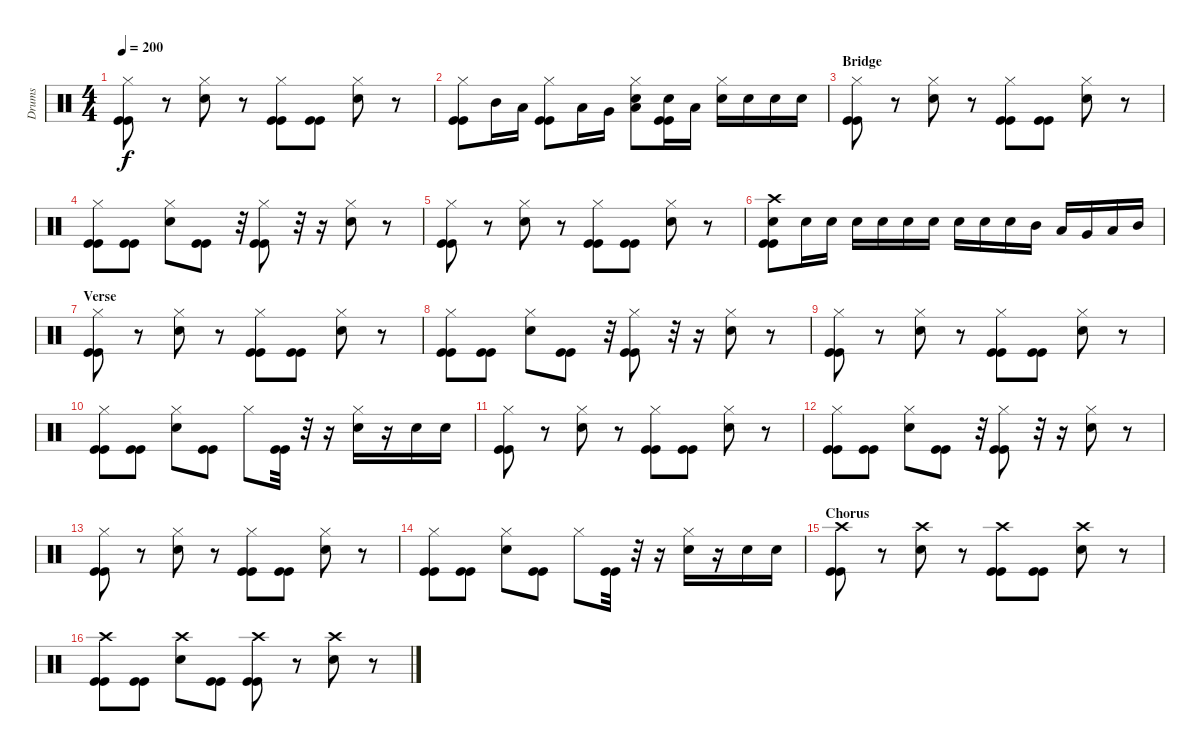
\track ("Drums" "Drums") {instrument percussion}
\staff {score}
\articulation defaults
\ts (4 4)
\tempo 200
\clef neutral
\ks c
("Hi-Hat (closed)" "Kick (hit)" "Kick (hit)").8{dy f} r.8 ("Hi-Hat (closed)" "Electric Snare (hit)").8 r.8 ("Hi-Hat (closed)" "Kick (hit)" "Kick (hit)").8 ("Kick (hit)" "Kick (hit)").8 ("Hi-Hat (closed)" "Electric Snare (hit)").8 r.8 |
("Hi-Hat (closed)" "Kick (hit)" "Kick (hit)").8 "Mid Tom (hit)".16 "Low Tom (hit)".16 ("Hi-Hat (closed)" "Kick (hit)" "Kick (hit)").8 "Low Tom (hit)".16 "Very Low Tom (hit)".16 ("Hi-Hat (closed)" "Low Tom (hit)" "Electric Snare (hit)").8 ("Electric Snare (hit)" "Kick (hit)" "Kick (hit)").16 "Low Tom (hit)".16 ("Hi-Hat (closed)" "Electric Snare (hit)").16 "Electric Snare (hit)".16 "Electric Snare (hit)".16 "Electric Snare (hit)".16 |
\section ("" "Bridge")
("Hi-Hat (closed)" "Kick (hit)" "Kick (hit)").8 r.8 ("Hi-Hat (closed)" "Electric Snare (hit)").8 r.8 ("Hi-Hat (closed)" "Kick (hit)" "Kick (hit)").8 ("Kick (hit)" "Kick (hit)").8 ("Hi-Hat (closed)" "Electric Snare (hit)").8 r.8 |
("Hi-Hat (closed)" "Kick (hit)" "Kick (hit)").8 ("Kick (hit)" "Kick (hit)").8 ("Hi-Hat (closed)" "Electric Snare (hit)").8 ("Kick (hit)" "Kick (hit)").8 r.32 ("Hi-Hat (closed)" "Kick (hit)" "Kick (hit)").8 r.32 r.16 ("Hi-Hat (closed)" "Electric Snare (hit)").8 r.8 |
("Hi-Hat (closed)" "Kick (hit)" "Kick (hit)").8 r.8 ("Hi-Hat (closed)" "Electric Snare (hit)").8 r.8 ("Hi-Hat (closed)" "Kick (hit)" "Kick (hit)").8 ("Kick (hit)" "Kick (hit)").8 ("Hi-Hat (closed)" "Electric Snare (hit)").8 r.8 |
("Crash high (hit)" "Electric Snare (hit)" "Kick (hit)" "Kick (hit)").8 "Electric Snare (hit)".16 "Electric Snare (hit)".16 "Electric Snare (hit)".16 "Electric Snare (hit)".16 "Electric Snare (hit)".16 "Electric Snare (hit)".16 "Electric Snare (hit)".16 "Electric Snare (hit)".16 "Electric Snare (hit)".16 "Mid Tom (hit)".16 "Low Tom (hit)".16 "Very Low Tom (hit)".16 "Low Tom (hit)".16 "Mid Tom (hit)".16 |
\section ("" "Verse")
("Hi-Hat (closed)" "Kick (hit)" "Kick (hit)").8 r.8 ("Hi-Hat (closed)" "Electric Snare (hit)").8 r.8 ("Hi-Hat (closed)" "Kick (hit)" "Kick (hit)").8 ("Kick (hit)" "Kick (hit)").8 ("Hi-Hat (closed)" "Electric Snare (hit)").8 r.8 |
("Hi-Hat (closed)" "Kick (hit)" "Kick (hit)").8 ("Kick (hit)" "Kick (hit)").8 ("Hi-Hat (closed)" "Electric Snare (hit)").8 ("Kick (hit)" "Kick (hit)").8 r.32 ("Hi-Hat (closed)" "Kick (hit)" "Kick (hit)").8 r.32 r.16 ("Hi-Hat (closed)" "Electric Snare (hit)").8 r.8 |
("Hi-Hat (closed)" "Kick (hit)" "Kick (hit)").8 r.8 ("Hi-Hat (closed)" "Electric Snare (hit)").8 r.8 ("Hi-Hat (closed)" "Kick (hit)" "Kick (hit)").8 ("Kick (hit)" "Kick (hit)").8 ("Hi-Hat (closed)" "Electric Snare (hit)").8 r.8 |
("Hi-Hat (closed)" "Kick (hit)" "Kick (hit)").8 ("Kick (hit)" "Kick (hit)").8 ("Hi-Hat (closed)" "Electric Snare (hit)").8 ("Kick (hit)" "Kick (hit)").8 "Hi-Hat (closed)".8 ("Kick (hit)" "Kick (hit)").32 r.32 r.16 ("Hi-Hat (closed)" "Electric Snare (hit)").16 r.16 "Electric Snare (hit)".16 "Electric Snare (hit)".16 |
("Hi-Hat (closed)" "Kick (hit)" "Kick (hit)").8 r.8 ("Hi-Hat (closed)" "Electric Snare (hit)").8 r.8 ("Hi-Hat (closed)" "Kick (hit)" "Kick (hit)").8 ("Kick (hit)" "Kick (hit)").8 ("Hi-Hat (closed)" "Electric Snare (hit)").8 r.8 |
("Hi-Hat (closed)" "Kick (hit)" "Kick (hit)").8 ("Kick (hit)" "Kick (hit)").8 ("Hi-Hat (closed)" "Electric Snare (hit)").8 ("Kick (hit)" "Kick (hit)").8 r.32 ("Hi-Hat (closed)" "Kick (hit)" "Kick (hit)").8 r.32 r.16 ("Hi-Hat (closed)" "Electric Snare (hit)").8 r.8 |
("Hi-Hat (closed)" "Kick (hit)" "Kick (hit)").8 r.8 ("Hi-Hat (closed)" "Electric Snare (hit)").8 r.8 ("Hi-Hat (closed)" "Kick (hit)" "Kick (hit)").8 ("Kick (hit)" "Kick (hit)").8 ("Hi-Hat (closed)" "Electric Snare (hit)").8 r.8 |
("Hi-Hat (closed)" "Kick (hit)" "Kick (hit)").8 ("Kick (hit)" "Kick (hit)").8 ("Hi-Hat (closed)" "Electric Snare (hit)").8 ("Kick (hit)" "Kick (hit)").8 "Hi-Hat (closed)".8 ("Kick (hit)" "Kick (hit)").32 r.32 r.16 ("Hi-Hat (closed)" "Electric Snare (hit)").16 r.16 "Electric Snare (hit)".16 "Electric Snare (hit)".16 |
\section ("" "Chorus")
("Crash high (hit)" "Kick (hit)" "Kick (hit)").8 r.8 ("Crash high (hit)" "Electric Snare (hit)").8 r.8 ("Crash high (hit)" "Kick (hit)" "Kick (hit)").8 ("Kick (hit)" "Kick (hit)").8 ("Crash high (hit)" "Electric Snare (hit)").8 r.8 |
("Crash high (hit)" "Kick (hit)" "Kick (hit)").8 ("Kick (hit)" "Kick (hit)").8 ("Crash high (hit)" "Electric Snare (hit)").8 ("Kick (hit)" "Kick (hit)").8 ("Crash high (hit)" "Kick (hit)" "Kick (hit)").8 r.8 ("Crash high (hit)" "Electric Snare (hit)").8 r.8
